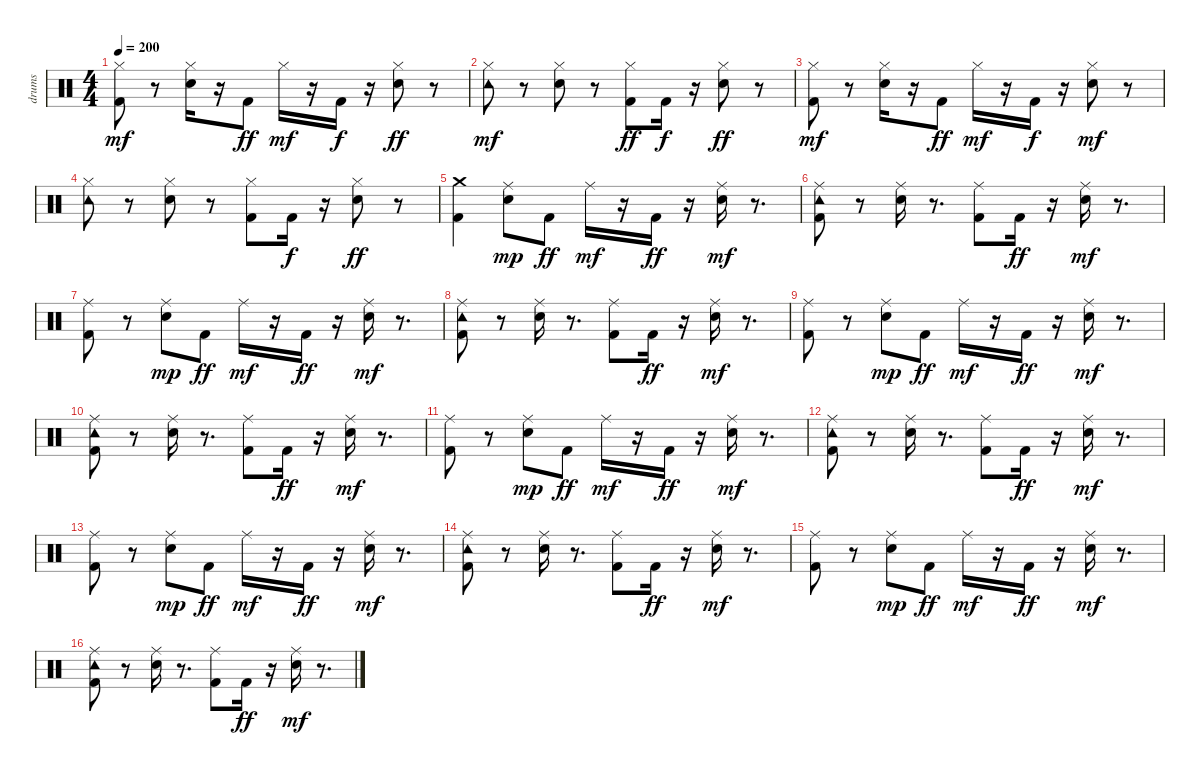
\track ("drums" "drums") {instrument percussion}
\staff {score}
\articulation defaults
\ts (4 4)
\tempo 200
\clef neutral
\ks c
("Kick (hit) 2" "Hi-Hat (closed)").8{dy mf} r.8 ("Snare (hit) 2" "Hi-Hat (closed)").16 r.16 "Kick (hit) 2".8{dy ff} "Hi-Hat (closed)".16{dy mf} r.16 "Kick (hit) 2".16{dy f} r.16 ("Hi-Hat (closed)" "Snare (hit) 2").8{dy ff} r.8 |
("Tambourine (hit)" "Hi-Hat (closed)").8{dy mf} r.8 ("Snare (hit) 2" "Hi-Hat (closed)").8 r.8 ("Hi-Hat (closed)" "Kick (hit) 2").8{dy ff} "Kick (hit) 2".16{dy f} r.16 ("Hi-Hat (closed)" "Snare (hit) 2").8{dy ff} r.8 |
("Kick (hit) 2" "Hi-Hat (closed)").8{dy mf} r.8 ("Hi-Hat (closed)" "Snare (hit) 2").16 r.16 "Kick (hit) 2".8{dy ff} "Hi-Hat (closed)".16{dy mf} r.16 "Kick (hit) 2".16{dy f} r.16 ("Snare (hit) 2" "Hi-Hat (closed)").8{dy mf} r.8 |
("Tambourine (hit)" "Hi-Hat (closed)").8 r.8 ("Snare (hit) 2" "Hi-Hat (closed)").8 r.8 ("Kick (hit) 2" "Hi-Hat (closed)").8 "Kick (hit) 2".16{dy f} r.16 ("Snare (hit) 2" "Hi-Hat (closed)").8{dy ff} r.8 |
("Kick (hit) 2" "Crash medium (hit)").4 ("Snare (hit) 2" "Ride (middle)").8{dy mp} "Kick (hit) 2".8{dy ff} "Ride (middle)".16{dy mf} r.16 "Kick (hit) 2".16{dy ff} r.16 ("Snare (hit) 2" "Ride (middle)").16{dy mf} r.8{d} |
("Tambourine (hit)" "Kick (hit) 2" "Ride (middle)").8 r.8 ("Snare (hit) 2" "Ride (middle)").16 r.8{d} ("Kick (hit) 2" "Ride (middle)").8 "Kick (hit) 2".16{dy ff} r.16 ("Snare (hit) 2" "Ride (middle)").16{dy mf} r.8{d} |
("Kick (hit) 2" "Ride (middle)").8 r.8 ("Snare (hit) 2" "Ride (middle)").8{dy mp} "Kick (hit) 2".8{dy ff} "Ride (middle)".16{dy mf} r.16 "Kick (hit) 2".16{dy ff} r.16 ("Snare (hit) 2" "Ride (middle)").16{dy mf} r.8{d} |
("Tambourine (hit)" "Kick (hit) 2" "Ride (middle)").8 r.8 ("Snare (hit) 2" "Ride (middle)").16 r.8{d} ("Kick (hit) 2" "Ride (middle)").8 "Kick (hit) 2".16{dy ff} r.16 ("Snare (hit) 2" "Ride (middle)").16{dy mf} r.8{d} |
("Kick (hit) 2" "Ride (middle)").8 r.8 ("Snare (hit) 2" "Ride (middle)").8{dy mp} "Kick (hit) 2".8{dy ff} "Ride (middle)".16{dy mf} r.16 "Kick (hit) 2".16{dy ff} r.16 ("Snare (hit) 2" "Ride (middle)").16{dy mf} r.8{d} |
("Tambourine (hit)" "Kick (hit) 2" "Ride (middle)").8 r.8 ("Snare (hit) 2" "Ride (middle)").16 r.8{d} ("Kick (hit) 2" "Ride (middle)").8 "Kick (hit) 2".16{dy ff} r.16 ("Snare (hit) 2" "Ride (middle)").16{dy mf} r.8{d} |
("Kick (hit) 2" "Ride (middle)").8 r.8 ("Snare (hit) 2" "Ride (middle)").8{dy mp} "Kick (hit) 2".8{dy ff} "Ride (middle)".16{dy mf} r.16 "Kick (hit) 2".16{dy ff} r.16 ("Snare (hit) 2" "Ride (middle)").16{dy mf} r.8{d} |
("Tambourine (hit)" "Kick (hit) 2" "Ride (middle)").8 r.8 ("Snare (hit) 2" "Ride (middle)").16 r.8{d} ("Kick (hit) 2" "Ride (middle)").8 "Kick (hit) 2".16{dy ff} r.16 ("Snare (hit) 2" "Ride (middle)").16{dy mf} r.8{d} |
("Kick (hit) 2" "Ride (middle)").8 r.8 ("Snare (hit) 2" "Ride (middle)").8{dy mp} "Kick (hit) 2".8{dy ff} "Ride (middle)".16{dy mf} r.16 "Kick (hit) 2".16{dy ff} r.16 ("Snare (hit) 2" "Ride (middle)").16{dy mf} r.8{d} |
("Tambourine (hit)" "Kick (hit) 2" "Ride (middle)").8 r.8 ("Snare (hit) 2" "Ride (middle)").16 r.8{d} ("Kick (hit) 2" "Ride (middle)").8 "Kick (hit) 2".16{dy ff} r.16 ("Snare (hit) 2" "Ride (middle)").16{dy mf} r.8{d} |
("Kick (hit) 2" "Ride (middle)").8 r.8 ("Snare (hit) 2" "Ride (middle)").8{dy mp} "Kick (hit) 2".8{dy ff} "Ride (middle)".16{dy mf} r.16 "Kick (hit) 2".16{dy ff} r.16 ("Snare (hit) 2" "Ride (middle)").16{dy mf} r.8{d} |
("Tambourine (hit)" "Kick (hit) 2" "Ride (middle)").8 r.8 ("Snare (hit) 2" "Ride (middle)").16 r.8{d} ("Kick (hit) 2" "Ride (middle)").8 "Kick (hit) 2".16{dy ff} r.16 ("Snare (hit) 2" "Ride (middle)").16{dy mf} r.8{d}
